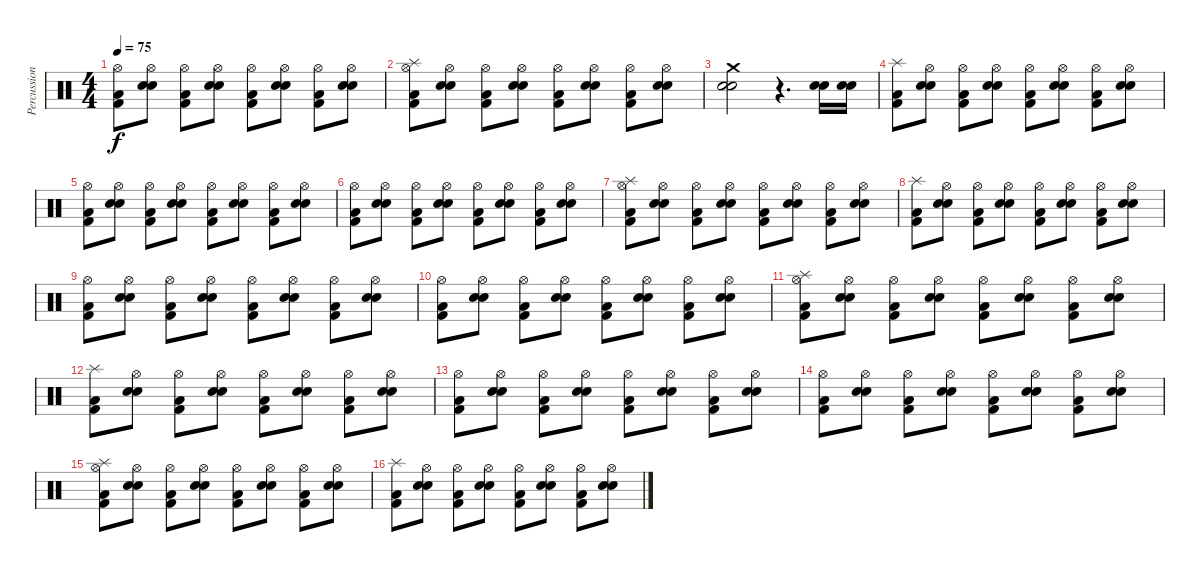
\track ("Percussions" "Percussion") {instrument percussion}
\staff {score}
\articulation defaults
\ts (4 4)
\tempo 75
\clef neutral
\ks c
("Low Floor Tom (hit)" "Kick (hit) 2" "Hi-Hat (open)").8{dy f} ("Electric Snare (hit)" "Snare (hit) 2" "Hi-Hat (open)").8 ("Low Floor Tom (hit)" "Kick (hit) 2" "Hi-Hat (open)").8 ("Electric Snare (hit)" "Snare (hit) 2" "Hi-Hat (open)").8 ("Low Floor Tom (hit)" "Kick (hit) 2" "Hi-Hat (open)").8 ("Electric Snare (hit)" "Snare (hit) 2" "Hi-Hat (open)").8 ("Low Floor Tom (hit)" "Kick (hit) 2" "Hi-Hat (open)").8 ("Electric Snare (hit)" "Snare (hit) 2" "Hi-Hat (open)").8 |
("Splash (hit)" "Low Floor Tom (hit)" "Kick (hit) 2" "Hi-Hat (open)").8 ("Electric Snare (hit)" "Snare (hit) 2" "Hi-Hat (open)").8 ("Low Floor Tom (hit)" "Kick (hit) 2" "Hi-Hat (open)").8 ("Electric Snare (hit)" "Snare (hit) 2" "Hi-Hat (open)").8 ("Low Floor Tom (hit)" "Kick (hit) 2" "Hi-Hat (open)").8 ("Electric Snare (hit)" "Snare (hit) 2" "Hi-Hat (open)").8 ("Low Floor Tom (hit)" "Kick (hit) 2" "Hi-Hat (open)").8 ("Electric Snare (hit)" "Snare (hit) 2" "Hi-Hat (open)").8 |
("Crash medium (hit)" "Electric Snare (hit)" "Snare (hit) 2").2 r.4{d} ("Electric Snare (hit)" "Snare (hit) 2").16 ("Electric Snare (hit)" "Snare (hit) 2").16 |
("Splash (hit)" "Low Floor Tom (hit)" "Kick (hit) 2").8 ("Electric Snare (hit)" "Snare (hit) 2" "Hi-Hat (open)").8 ("Low Floor Tom (hit)" "Kick (hit) 2" "Hi-Hat (open)").8 ("Electric Snare (hit)" "Snare (hit) 2" "Hi-Hat (open)").8 ("Low Floor Tom (hit)" "Kick (hit) 2" "Hi-Hat (open)").8 ("Electric Snare (hit)" "Snare (hit) 2" "Hi-Hat (open)").8 ("Low Floor Tom (hit)" "Kick (hit) 2" "Hi-Hat (open)").8 ("Electric Snare (hit)" "Snare (hit) 2" "Hi-Hat (open)").8 |
("Low Floor Tom (hit)" "Kick (hit) 2" "Hi-Hat (open)").8 ("Electric Snare (hit)" "Snare (hit) 2" "Hi-Hat (open)").8 ("Low Floor Tom (hit)" "Kick (hit) 2" "Hi-Hat (open)").8 ("Electric Snare (hit)" "Snare (hit) 2" "Hi-Hat (open)").8 ("Low Floor Tom (hit)" "Kick (hit) 2" "Hi-Hat (open)").8 ("Electric Snare (hit)" "Snare (hit) 2" "Hi-Hat (open)").8 ("Low Floor Tom (hit)" "Kick (hit) 2" "Hi-Hat (open)").8 ("Electric Snare (hit)" "Snare (hit) 2" "Hi-Hat (open)").8 |
("Low Floor Tom (hit)" "Kick (hit) 2" "Hi-Hat (open)").8 ("Electric Snare (hit)" "Snare (hit) 2" "Hi-Hat (open)").8 ("Low Floor Tom (hit)" "Kick (hit) 2" "Hi-Hat (open)").8 ("Electric Snare (hit)" "Snare (hit) 2" "Hi-Hat (open)").8 ("Low Floor Tom (hit)" "Kick (hit) 2" "Hi-Hat (open)").8 ("Electric Snare (hit)" "Snare (hit) 2" "Hi-Hat (open)").8 ("Low Floor Tom (hit)" "Kick (hit) 2" "Hi-Hat (open)").8 ("Electric Snare (hit)" "Snare (hit) 2" "Hi-Hat (open)").8 |
("Splash (hit)" "Low Floor Tom (hit)" "Kick (hit) 2" "Hi-Hat (open)").8 ("Electric Snare (hit)" "Snare (hit) 2" "Hi-Hat (open)").8 ("Low Floor Tom (hit)" "Kick (hit) 2" "Hi-Hat (open)").8 ("Electric Snare (hit)" "Snare (hit) 2" "Hi-Hat (open)").8 ("Low Floor Tom (hit)" "Kick (hit) 2" "Hi-Hat (open)").8 ("Electric Snare (hit)" "Snare (hit) 2" "Hi-Hat (open)").8 ("Low Floor Tom (hit)" "Kick (hit) 2" "Hi-Hat (open)").8 ("Electric Snare (hit)" "Snare (hit) 2" "Hi-Hat (open)").8 |
("Splash (hit)" "Low Floor Tom (hit)" "Kick (hit) 2").8 ("Electric Snare (hit)" "Snare (hit) 2" "Hi-Hat (open)").8 ("Low Floor Tom (hit)" "Kick (hit) 2" "Hi-Hat (open)").8 ("Electric Snare (hit)" "Snare (hit) 2" "Hi-Hat (open)").8 ("Low Floor Tom (hit)" "Kick (hit) 2" "Hi-Hat (open)").8 ("Electric Snare (hit)" "Snare (hit) 2" "Hi-Hat (open)").8 ("Low Floor Tom (hit)" "Kick (hit) 2" "Hi-Hat (open)").8 ("Electric Snare (hit)" "Snare (hit) 2" "Hi-Hat (open)").8 |
("Low Floor Tom (hit)" "Kick (hit) 2" "Hi-Hat (open)").8 ("Electric Snare (hit)" "Snare (hit) 2" "Hi-Hat (open)").8 ("Low Floor Tom (hit)" "Kick (hit) 2" "Hi-Hat (open)").8 ("Electric Snare (hit)" "Snare (hit) 2" "Hi-Hat (open)").8 ("Low Floor Tom (hit)" "Kick (hit) 2" "Hi-Hat (open)").8 ("Electric Snare (hit)" "Snare (hit) 2" "Hi-Hat (open)").8 ("Low Floor Tom (hit)" "Kick (hit) 2" "Hi-Hat (open)").8 ("Electric Snare (hit)" "Snare (hit) 2" "Hi-Hat (open)").8 |
("Low Floor Tom (hit)" "Kick (hit) 2" "Hi-Hat (open)").8 ("Electric Snare (hit)" "Snare (hit) 2" "Hi-Hat (open)").8 ("Low Floor Tom (hit)" "Kick (hit) 2" "Hi-Hat (open)").8 ("Electric Snare (hit)" "Snare (hit) 2" "Hi-Hat (open)").8 ("Low Floor Tom (hit)" "Kick (hit) 2" "Hi-Hat (open)").8 ("Electric Snare (hit)" "Snare (hit) 2" "Hi-Hat (open)").8 ("Low Floor Tom (hit)" "Kick (hit) 2" "Hi-Hat (open)").8 ("Electric Snare (hit)" "Snare (hit) 2" "Hi-Hat (open)").8 |
("Splash (hit)" "Low Floor Tom (hit)" "Kick (hit) 2" "Hi-Hat (open)").8 ("Electric Snare (hit)" "Snare (hit) 2" "Hi-Hat (open)").8 ("Low Floor Tom (hit)" "Kick (hit) 2" "Hi-Hat (open)").8 ("Electric Snare (hit)" "Snare (hit) 2" "Hi-Hat (open)").8 ("Low Floor Tom (hit)" "Kick (hit) 2" "Hi-Hat (open)").8 ("Electric Snare (hit)" "Snare (hit) 2" "Hi-Hat (open)").8 ("Low Floor Tom (hit)" "Kick (hit) 2" "Hi-Hat (open)").8 ("Electric Snare (hit)" "Snare (hit) 2" "Hi-Hat (open)").8 |
("Splash (hit)" "Low Floor Tom (hit)" "Kick (hit) 2").8 ("Electric Snare (hit)" "Snare (hit) 2" "Hi-Hat (open)").8 ("Low Floor Tom (hit)" "Kick (hit) 2" "Hi-Hat (open)").8 ("Electric Snare (hit)" "Snare (hit) 2" "Hi-Hat (open)").8 ("Low Floor Tom (hit)" "Kick (hit) 2" "Hi-Hat (open)").8 ("Electric Snare (hit)" "Snare (hit) 2" "Hi-Hat (open)").8 ("Low Floor Tom (hit)" "Kick (hit) 2" "Hi-Hat (open)").8 ("Electric Snare (hit)" "Snare (hit) 2" "Hi-Hat (open)").8 |
("Low Floor Tom (hit)" "Kick (hit) 2" "Hi-Hat (open)").8 ("Electric Snare (hit)" "Snare (hit) 2" "Hi-Hat (open)").8 ("Low Floor Tom (hit)" "Kick (hit) 2" "Hi-Hat (open)").8 ("Electric Snare (hit)" "Snare (hit) 2" "Hi-Hat (open)").8 ("Low Floor Tom (hit)" "Kick (hit) 2" "Hi-Hat (open)").8 ("Electric Snare (hit)" "Snare (hit) 2" "Hi-Hat (open)").8 ("Low Floor Tom (hit)" "Kick (hit) 2" "Hi-Hat (open)").8 ("Electric Snare (hit)" "Snare (hit) 2" "Hi-Hat (open)").8 |
("Low Floor Tom (hit)" "Kick (hit) 2" "Hi-Hat (open)").8 ("Electric Snare (hit)" "Snare (hit) 2" "Hi-Hat (open)").8 ("Low Floor Tom (hit)" "Kick (hit) 2" "Hi-Hat (open)").8 ("Electric Snare (hit)" "Snare (hit) 2" "Hi-Hat (open)").8 ("Low Floor Tom (hit)" "Kick (hit) 2" "Hi-Hat (open)").8 ("Electric Snare (hit)" "Snare (hit) 2" "Hi-Hat (open)").8 ("Low Floor Tom (hit)" "Kick (hit) 2" "Hi-Hat (open)").8 ("Electric Snare (hit)" "Snare (hit) 2" "Hi-Hat (open)").8 |
("Splash (hit)" "Low Floor Tom (hit)" "Kick (hit) 2" "Hi-Hat (open)").8 ("Electric Snare (hit)" "Snare (hit) 2" "Hi-Hat (open)").8 ("Low Floor Tom (hit)" "Kick (hit) 2" "Hi-Hat (open)").8 ("Electric Snare (hit)" "Snare (hit) 2" "Hi-Hat (open)").8 ("Low Floor Tom (hit)" "Kick (hit) 2" "Hi-Hat (open)").8 ("Electric Snare (hit)" "Snare (hit) 2" "Hi-Hat (open)").8 ("Low Floor Tom (hit)" "Kick (hit) 2" "Hi-Hat (open)").8 ("Electric Snare (hit)" "Snare (hit) 2" "Hi-Hat (open)").8 |
("Splash (hit)" "Low Floor Tom (hit)" "Kick (hit) 2").8 ("Electric Snare (hit)" "Snare (hit) 2" "Hi-Hat (open)").8 ("Low Floor Tom (hit)" "Kick (hit) 2" "Hi-Hat (open)").8 ("Electric Snare (hit)" "Snare (hit) 2" "Hi-Hat (open)").8 ("Low Floor Tom (hit)" "Kick (hit) 2" "Hi-Hat (open)").8 ("Electric Snare (hit)" "Snare (hit) 2" "Hi-Hat (open)").8 ("Low Floor Tom (hit)" "Kick (hit) 2" "Hi-Hat (open)").8 ("Electric Snare (hit)" "Snare (hit) 2" "Hi-Hat (open)").8
